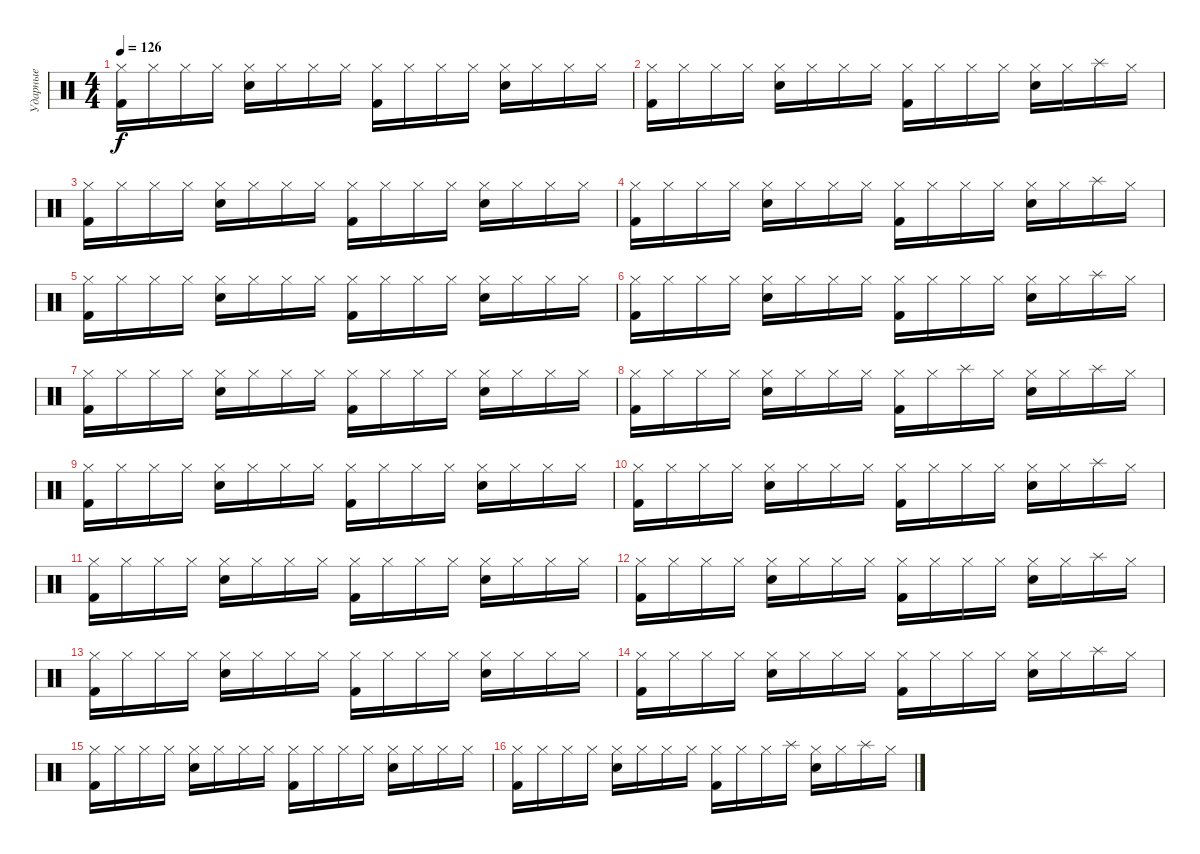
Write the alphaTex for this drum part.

\track ("Ударные" "Ударные") {instrument percussion}
\staff {score}
\articulation defaults
\ts (4 4)
\tempo 126
\clef neutral
\ks c
("Hi-Hat (closed)" "Kick (hit) 2").16{dy f} "Hi-Hat (closed)".16 "Hi-Hat (closed)".16 "Hi-Hat (closed)".16 ("Hi-Hat (closed)" "Snare (hit) 2").16 "Hi-Hat (closed)".16 "Hi-Hat (closed)".16 "Hi-Hat (closed)".16 ("Hi-Hat (closed)" "Kick (hit) 2").16 "Hi-Hat (closed)".16 "Hi-Hat (closed)".16 "Hi-Hat (closed)".16 ("Hi-Hat (closed)" "Snare (hit) 2").16 "Hi-Hat (closed)".16 "Hi-Hat (closed)".16 "Hi-Hat (closed)".16 |
("Hi-Hat (closed)" "Kick (hit) 2").16 "Hi-Hat (closed)".16 "Hi-Hat (closed)".16 "Hi-Hat (closed)".16 ("Hi-Hat (closed)" "Snare (hit) 2").16 "Hi-Hat (closed)".16 "Hi-Hat (closed)".16 "Hi-Hat (closed)".16 ("Hi-Hat (closed)" "Kick (hit) 2").16 "Hi-Hat (closed)".16 "Hi-Hat (closed)".16 "Hi-Hat (closed)".16 ("Hi-Hat (closed)" "Snare (hit) 2").16 "Hi-Hat (closed)".16 "Splash (hit)".16 "Hi-Hat (closed)".16 |
("Hi-Hat (closed)" "Kick (hit) 2").16 "Hi-Hat (closed)".16 "Hi-Hat (closed)".16 "Hi-Hat (closed)".16 ("Hi-Hat (closed)" "Snare (hit) 2").16 "Hi-Hat (closed)".16 "Hi-Hat (closed)".16 "Hi-Hat (closed)".16 ("Hi-Hat (closed)" "Kick (hit) 2").16 "Hi-Hat (closed)".16 "Hi-Hat (closed)".16 "Hi-Hat (closed)".16 ("Hi-Hat (closed)" "Snare (hit) 2").16 "Hi-Hat (closed)".16 "Hi-Hat (closed)".16 "Hi-Hat (closed)".16 |
("Hi-Hat (closed)" "Kick (hit) 2").16 "Hi-Hat (closed)".16 "Hi-Hat (closed)".16 "Hi-Hat (closed)".16 ("Hi-Hat (closed)" "Snare (hit) 2").16 "Hi-Hat (closed)".16 "Hi-Hat (closed)".16 "Hi-Hat (closed)".16 ("Hi-Hat (closed)" "Kick (hit) 2").16 "Hi-Hat (closed)".16 "Hi-Hat (closed)".16 "Hi-Hat (closed)".16 ("Hi-Hat (closed)" "Snare (hit) 2").16 "Hi-Hat (closed)".16 "Splash (hit)".16 "Hi-Hat (closed)".16 |
("Hi-Hat (closed)" "Kick (hit) 2").16 "Hi-Hat (closed)".16 "Hi-Hat (closed)".16 "Hi-Hat (closed)".16 ("Hi-Hat (closed)" "Snare (hit) 2").16 "Hi-Hat (closed)".16 "Hi-Hat (closed)".16 "Hi-Hat (closed)".16 ("Hi-Hat (closed)" "Kick (hit) 2").16 "Hi-Hat (closed)".16 "Hi-Hat (closed)".16 "Hi-Hat (closed)".16 ("Hi-Hat (closed)" "Snare (hit) 2").16 "Hi-Hat (closed)".16 "Hi-Hat (closed)".16 "Hi-Hat (closed)".16 |
("Hi-Hat (closed)" "Kick (hit) 2").16 "Hi-Hat (closed)".16 "Hi-Hat (closed)".16 "Hi-Hat (closed)".16 ("Hi-Hat (closed)" "Snare (hit) 2").16 "Hi-Hat (closed)".16 "Hi-Hat (closed)".16 "Hi-Hat (closed)".16 ("Hi-Hat (closed)" "Kick (hit) 2").16 "Hi-Hat (closed)".16 "Hi-Hat (closed)".16 "Hi-Hat (closed)".16 ("Hi-Hat (closed)" "Snare (hit) 2").16 "Hi-Hat (closed)".16 "Splash (hit)".16 "Hi-Hat (closed)".16 |
("Hi-Hat (closed)" "Kick (hit) 2").16 "Hi-Hat (closed)".16 "Hi-Hat (closed)".16 "Hi-Hat (closed)".16 ("Hi-Hat (closed)" "Snare (hit) 2").16 "Hi-Hat (closed)".16 "Hi-Hat (closed)".16 "Hi-Hat (closed)".16 ("Hi-Hat (closed)" "Kick (hit) 2").16 "Hi-Hat (closed)".16 "Hi-Hat (closed)".16 "Hi-Hat (closed)".16 ("Hi-Hat (closed)" "Snare (hit) 2").16 "Hi-Hat (closed)".16 "Hi-Hat (closed)".16 "Hi-Hat (closed)".16 |
("Hi-Hat (closed)" "Kick (hit) 2").16 "Hi-Hat (closed)".16 "Hi-Hat (closed)".16 "Hi-Hat (closed)".16 ("Hi-Hat (closed)" "Snare (hit) 2").16 "Hi-Hat (closed)".16 "Hi-Hat (closed)".16 "Hi-Hat (closed)".16 ("Hi-Hat (closed)" "Kick (hit) 2").16 "Hi-Hat (closed)".16 "Splash (hit)".16 "Hi-Hat (closed)".16 ("Hi-Hat (closed)" "Snare (hit) 2").16 "Hi-Hat (closed)".16 "Splash (hit)".16 "Hi-Hat (closed)".16 |
("Hi-Hat (closed)" "Kick (hit) 2").16 "Hi-Hat (closed)".16 "Hi-Hat (closed)".16 "Hi-Hat (closed)".16 ("Hi-Hat (closed)" "Snare (hit) 2").16 "Hi-Hat (closed)".16 "Hi-Hat (closed)".16 "Hi-Hat (closed)".16 ("Hi-Hat (closed)" "Kick (hit) 2").16 "Hi-Hat (closed)".16 "Hi-Hat (closed)".16 "Hi-Hat (closed)".16 ("Hi-Hat (closed)" "Snare (hit) 2").16 "Hi-Hat (closed)".16 "Hi-Hat (closed)".16 "Hi-Hat (closed)".16 |
("Hi-Hat (closed)" "Kick (hit) 2").16 "Hi-Hat (closed)".16 "Hi-Hat (closed)".16 "Hi-Hat (closed)".16 ("Hi-Hat (closed)" "Snare (hit) 2").16 "Hi-Hat (closed)".16 "Hi-Hat (closed)".16 "Hi-Hat (closed)".16 ("Hi-Hat (closed)" "Kick (hit) 2").16 "Hi-Hat (closed)".16 "Hi-Hat (closed)".16 "Hi-Hat (closed)".16 ("Hi-Hat (closed)" "Snare (hit) 2").16 "Hi-Hat (closed)".16 "Splash (hit)".16 "Hi-Hat (closed)".16 |
("Hi-Hat (closed)" "Kick (hit) 2").16 "Hi-Hat (closed)".16 "Hi-Hat (closed)".16 "Hi-Hat (closed)".16 ("Hi-Hat (closed)" "Snare (hit) 2").16 "Hi-Hat (closed)".16 "Hi-Hat (closed)".16 "Hi-Hat (closed)".16 ("Hi-Hat (closed)" "Kick (hit) 2").16 "Hi-Hat (closed)".16 "Hi-Hat (closed)".16 "Hi-Hat (closed)".16 ("Hi-Hat (closed)" "Snare (hit) 2").16 "Hi-Hat (closed)".16 "Hi-Hat (closed)".16 "Hi-Hat (closed)".16 |
("Hi-Hat (closed)" "Kick (hit) 2").16 "Hi-Hat (closed)".16 "Hi-Hat (closed)".16 "Hi-Hat (closed)".16 ("Hi-Hat (closed)" "Snare (hit) 2").16 "Hi-Hat (closed)".16 "Hi-Hat (closed)".16 "Hi-Hat (closed)".16 ("Hi-Hat (closed)" "Kick (hit) 2").16 "Hi-Hat (closed)".16 "Hi-Hat (closed)".16 "Hi-Hat (closed)".16 ("Hi-Hat (closed)" "Snare (hit) 2").16 "Hi-Hat (closed)".16 "Splash (hit)".16 "Hi-Hat (closed)".16 |
("Hi-Hat (closed)" "Kick (hit) 2").16 "Hi-Hat (closed)".16 "Hi-Hat (closed)".16 "Hi-Hat (closed)".16 ("Hi-Hat (closed)" "Snare (hit) 2").16 "Hi-Hat (closed)".16 "Hi-Hat (closed)".16 "Hi-Hat (closed)".16 ("Hi-Hat (closed)" "Kick (hit) 2").16 "Hi-Hat (closed)".16 "Hi-Hat (closed)".16 "Hi-Hat (closed)".16 ("Hi-Hat (closed)" "Snare (hit) 2").16 "Hi-Hat (closed)".16 "Hi-Hat (closed)".16 "Hi-Hat (closed)".16 |
("Hi-Hat (closed)" "Kick (hit) 2").16 "Hi-Hat (closed)".16 "Hi-Hat (closed)".16 "Hi-Hat (closed)".16 ("Hi-Hat (closed)" "Snare (hit) 2").16 "Hi-Hat (closed)".16 "Hi-Hat (closed)".16 "Hi-Hat (closed)".16 ("Hi-Hat (closed)" "Kick (hit) 2").16 "Hi-Hat (closed)".16 "Hi-Hat (closed)".16 "Hi-Hat (closed)".16 ("Hi-Hat (closed)" "Snare (hit) 2").16 "Hi-Hat (closed)".16 "Splash (hit)".16 "Hi-Hat (closed)".16 |
("Hi-Hat (closed)" "Kick (hit) 2").16 "Hi-Hat (closed)".16 "Hi-Hat (closed)".16 "Hi-Hat (closed)".16 ("Hi-Hat (closed)" "Snare (hit) 2").16 "Hi-Hat (closed)".16 "Hi-Hat (closed)".16 "Hi-Hat (closed)".16 ("Hi-Hat (closed)" "Kick (hit) 2").16 "Hi-Hat (closed)".16 "Hi-Hat (closed)".16 "Hi-Hat (closed)".16 ("Hi-Hat (closed)" "Snare (hit) 2").16 "Hi-Hat (closed)".16 "Hi-Hat (closed)".16 "Hi-Hat (closed)".16 |
("Hi-Hat (closed)" "Kick (hit) 2").16 "Hi-Hat (closed)".16 "Hi-Hat (closed)".16 "Hi-Hat (closed)".16 ("Hi-Hat (closed)" "Snare (hit) 2").16 "Hi-Hat (closed)".16 "Hi-Hat (closed)".16 "Hi-Hat (closed)".16 ("Hi-Hat (closed)" "Kick (hit) 2").16 "Hi-Hat (closed)".16 "Hi-Hat (closed)".16 "Splash (hit)".16 ("Hi-Hat (closed)" "Snare (hit) 2").16 "Hi-Hat (closed)".16 "Splash (hit)".16 "Hi-Hat (closed)".16
